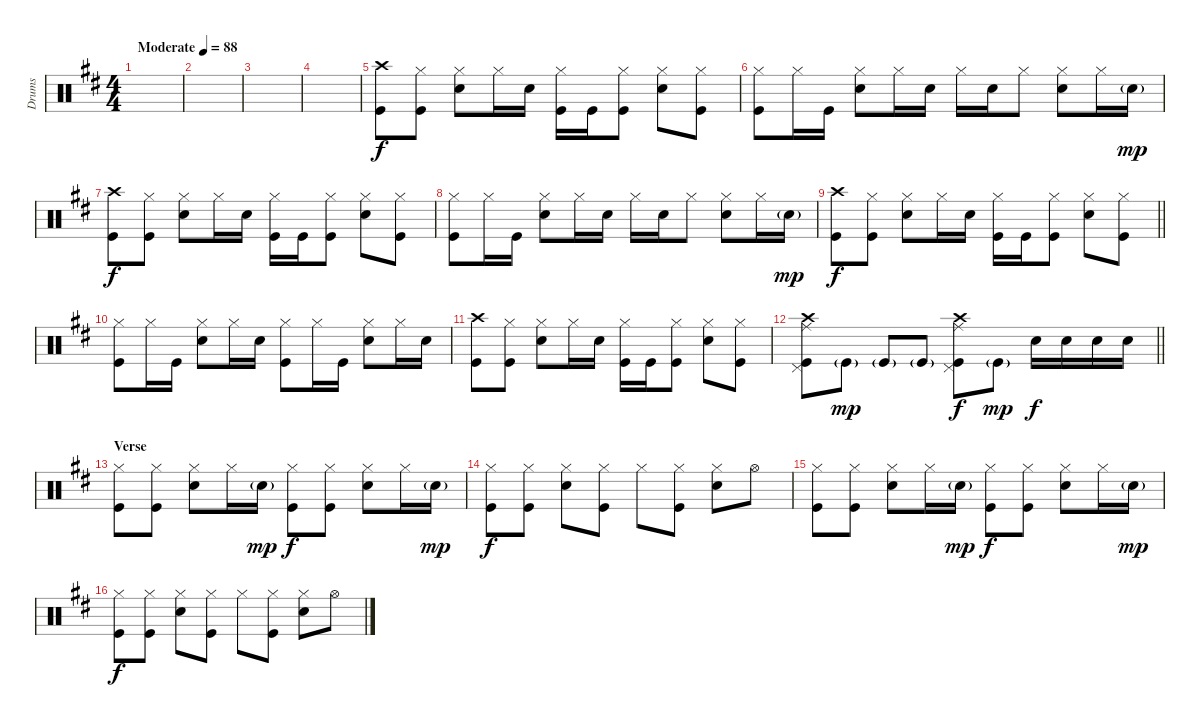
\track ("Drums" "Drums") {instrument percussion}
\staff {score}
\articulation defaults
\ts (4 4)
\tempo (88 "Moderate")
\clef neutral
\ks bminor
|
|
|
|
("Crash high (hit)" "Kick (hit)").8 ("Hi-Hat (closed)" "Kick (hit)").8 ("Hi-Hat (closed)" "Snare (hit) 2").8 "Hi-Hat (closed)".16 "Snare (hit) 2".16 ("Hi-Hat (closed)" "Kick (hit)").16 "Kick (hit)".16 ("Hi-Hat (closed)" "Kick (hit)").8 ("Snare (hit) 2" "Hi-Hat (closed)").8 ("Kick (hit)" "Hi-Hat (closed)").8 |
("Hi-Hat (closed)" "Kick (hit)").8 "Hi-Hat (closed)".16 "Kick (hit)".16 ("Hi-Hat (closed)" "Snare (hit) 2").8 "Hi-Hat (closed)".16 "Snare (hit) 2".16 "Hi-Hat (closed)".16 "Snare (hit) 2".16 "Hi-Hat (closed)".8 ("Hi-Hat (closed)" "Snare (hit) 2").8 "Hi-Hat (closed)".16 "Snare (hit) 2"{g}.16{dy mp} |
("Crash high (hit)" "Kick (hit)").8{dy f} ("Hi-Hat (closed)" "Kick (hit)").8 ("Hi-Hat (closed)" "Snare (hit) 2").8 "Hi-Hat (closed)".16 "Snare (hit) 2".16 ("Hi-Hat (closed)" "Kick (hit)").16 "Kick (hit)".16 ("Hi-Hat (closed)" "Kick (hit)").8 ("Snare (hit) 2" "Hi-Hat (closed)").8 ("Kick (hit)" "Hi-Hat (closed)").8 |
("Hi-Hat (closed)" "Kick (hit)").8 "Hi-Hat (closed)".16 "Kick (hit)".16 ("Hi-Hat (closed)" "Snare (hit) 2").8 "Hi-Hat (closed)".16 "Snare (hit) 2".16 "Hi-Hat (closed)".16 "Snare (hit) 2".16 "Hi-Hat (closed)".8 ("Hi-Hat (closed)" "Snare (hit) 2").8 "Hi-Hat (closed)".16 "Snare (hit) 2"{g}.16{dy mp} |
\barLineRight lightlight
("Crash high (hit)" "Kick (hit)").8{dy f} ("Hi-Hat (closed)" "Kick (hit)").8 ("Hi-Hat (closed)" "Snare (hit) 2").8 "Hi-Hat (closed)".16 "Snare (hit) 2".16 ("Hi-Hat (closed)" "Kick (hit)").16 "Kick (hit)".16 ("Hi-Hat (closed)" "Kick (hit)").8 ("Snare (hit) 2" "Hi-Hat (closed)").8 ("Kick (hit)" "Hi-Hat (closed)").8 |
("Hi-Hat (closed)" "Kick (hit)").8 "Hi-Hat (closed)".16 "Kick (hit)".16 ("Hi-Hat (closed)" "Snare (hit) 2").8 "Hi-Hat (closed)".16 "Snare (hit) 2".16 ("Hi-Hat (closed)" "Kick (hit)").8 "Hi-Hat (closed)".16 "Kick (hit)".16 ("Hi-Hat (closed)" "Snare (hit) 2").8 "Hi-Hat (closed)".16 "Snare (hit) 2".16 |
("Crash high (hit)" "Kick (hit)").8 ("Hi-Hat (closed)" "Kick (hit)").8 ("Hi-Hat (closed)" "Snare (hit) 2").8 "Hi-Hat (closed)".16 "Snare (hit) 2".16 ("Hi-Hat (closed)" "Kick (hit)").16 "Kick (hit)".16 ("Hi-Hat (closed)" "Kick (hit)").8 ("Snare (hit) 2" "Hi-Hat (closed)").8 ("Kick (hit)" "Hi-Hat (closed)").8 |
\barLineRight lightlight
("Pedal Hi-Hat (hit)" "Ride (middle)" "Crash high (hit)" "Kick (hit)").8 "Kick (hit)"{g}.8{dy mp} "Kick (hit)"{g}.8 "Kick (hit)"{g}.8 ("Pedal Hi-Hat (hit)" "Ride (middle)" "Crash high (hit)" "Kick (hit)").8{dy f} "Kick (hit)"{g}.8{dy mp} "Snare (hit) 2".16{dy f} "Snare (hit) 2".16 "Snare (hit) 2".16 "Snare (hit) 2".16 |
\section ("" "Verse")
("Kick (hit)" "Hi-Hat (closed)").8 ("Kick (hit)" "Hi-Hat (closed)").8 ("Snare (hit) 2" "Hi-Hat (closed)").8 "Hi-Hat (closed)".16 "Snare (hit) 2"{g}.16{dy mp} ("Kick (hit)" "Hi-Hat (closed)").8{dy f} ("Kick (hit)" "Hi-Hat (closed)").8 ("Snare (hit) 2" "Hi-Hat (closed)").8 "Hi-Hat (closed)".16 "Snare (hit) 2"{g}.16{dy mp} |
("Kick (hit)" "Hi-Hat (closed)").8{dy f} ("Kick (hit)" "Hi-Hat (closed)").8 ("Snare (hit) 2" "Hi-Hat (closed)").8 ("Kick (hit)" "Hi-Hat (closed)").8 "Hi-Hat (closed)".8 ("Kick (hit)" "Hi-Hat (closed)").8 ("Snare (hit) 2" "Hi-Hat (closed)").8 "Hi-Hat (open)".8 |
("Kick (hit)" "Hi-Hat (closed)").8 ("Kick (hit)" "Hi-Hat (closed)").8 ("Snare (hit) 2" "Hi-Hat (closed)").8 "Hi-Hat (closed)".16 "Snare (hit) 2"{g}.16{dy mp} ("Kick (hit)" "Hi-Hat (closed)").8{dy f} ("Kick (hit)" "Hi-Hat (closed)").8 ("Snare (hit) 2" "Hi-Hat (closed)").8 "Hi-Hat (closed)".16 "Snare (hit) 2"{g}.16{dy mp} |
("Kick (hit)" "Hi-Hat (closed)").8{dy f} ("Kick (hit)" "Hi-Hat (closed)").8 ("Snare (hit) 2" "Hi-Hat (closed)").8 ("Kick (hit)" "Hi-Hat (closed)").8 "Hi-Hat (closed)".8 ("Kick (hit)" "Hi-Hat (closed)").8 ("Snare (hit) 2" "Hi-Hat (closed)").8 "Hi-Hat (open)".8
